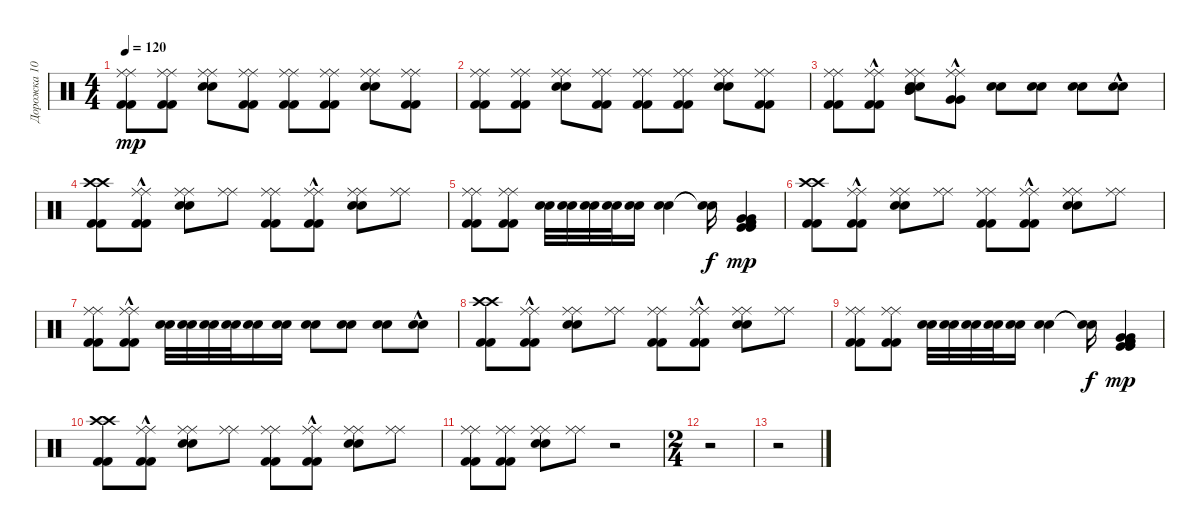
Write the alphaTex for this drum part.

\track ("Дорожка 10" "Дорожка 10") {instrument percussion}
\staff {score}
\articulation defaults
\ts (4 4)
\tempo 120
\clef neutral
\ks c
("Kick (hit) 2" "Ride (middle)" "Kick (hit) 2" "Ride (middle)").8{dy mp} ("Kick (hit) 2" "Ride (middle)" "Kick (hit) 2" "Ride (middle)").8 ("Snare (hit) 2" "Ride (middle)" "Snare (hit) 2" "Ride (middle)").8 ("Kick (hit) 2" "Ride (middle)" "Kick (hit) 2" "Ride (middle)").8 ("Kick (hit) 2" "Ride (middle)" "Kick (hit) 2" "Ride (middle)").8 ("Kick (hit) 2" "Ride (middle)" "Kick (hit) 2" "Ride (middle)").8 ("Snare (hit) 2" "Ride (middle)" "Snare (hit) 2" "Ride (middle)").8 ("Kick (hit) 2" "Ride (middle)" "Kick (hit) 2" "Ride (middle)").8 |
("Kick (hit) 2" "Ride (middle)" "Kick (hit) 2" "Ride (middle)").8 ("Kick (hit) 2" "Ride (middle)" "Kick (hit) 2" "Ride (middle)").8 ("Snare (hit) 2" "Ride (middle)" "Snare (hit) 2" "Ride (middle)").8 ("Kick (hit) 2" "Ride (middle)" "Kick (hit) 2" "Ride (middle)").8 ("Kick (hit) 2" "Ride (middle)" "Kick (hit) 2" "Ride (middle)").8 ("Kick (hit) 2" "Ride (middle)" "Kick (hit) 2" "Ride (middle)").8 ("Snare (hit) 2" "Ride (middle)" "Snare (hit) 2" "Ride (middle)").8 ("Kick (hit) 2" "Ride (middle)" "Kick (hit) 2" "Ride (middle)").8 |
("Kick (hit) 2" "Ride (middle)" "Kick (hit) 2" "Ride (middle)").8 ("Kick (hit) 2"{hac} "Ride (middle)" "Kick (hit) 2"{hac} "Ride (middle)").8 ("Snare (hit) 2" "Mid Tom (hit)" "Ride (middle)" "Snare (hit) 2" "Mid Tom (hit)" "Ride (middle)").8 ("Very Low Tom (hit)" "Ride (middle)"{hac} "Very Low Tom (hit)" "Ride (middle)"{hac}).8 ("Snare (hit) 2" "Snare (hit) 2").8 ("Snare (hit) 2" "Snare (hit) 2").8 ("Snare (hit) 2" "Snare (hit) 2").8 ("Snare (hit) 2"{hac} "Snare (hit) 2"{hac}).8 |
("Kick (hit) 2" "Crash high (hit)" "Kick (hit) 2" "Crash high (hit)").8 ("Kick (hit) 2"{hac} "Ride (middle)" "Kick (hit) 2"{hac} "Ride (middle)").8 ("Snare (hit) 2" "Ride (middle)" "Snare (hit) 2" "Ride (middle)").8 ("Ride (middle)" "Ride (middle)").8 ("Kick (hit) 2" "Ride (middle)" "Kick (hit) 2" "Ride (middle)").8 ("Kick (hit) 2"{hac} "Ride (middle)" "Kick (hit) 2"{hac} "Ride (middle)").8 ("Snare (hit) 2" "Ride (middle)" "Snare (hit) 2" "Ride (middle)").8 ("Ride (middle)" "Ride (middle)").8 |
("Kick (hit) 2" "Ride (middle)" "Kick (hit) 2" "Ride (middle)").8 ("Kick (hit) 2" "Ride (middle)" "Kick (hit) 2" "Ride (middle)").8 ("Snare (hit) 2" "Snare (hit) 2").32 ("Snare (hit) 2" "Snare (hit) 2").32 ("Snare (hit) 2" "Snare (hit) 2").32 ("Snare (hit) 2" "Snare (hit) 2").32 ("Snare (hit) 2" "Snare (hit) 2").16 ("Snare (hit) 2" "Snare (hit) 2").4 ("Snare (hit)"{t} "Snare (hit)"{t}).16{dy f} ("Kick (hit)" "Kick (hit) 2" "Very Low Tom (hit)" "Kick (hit)" "Kick (hit) 2" "Very Low Tom (hit)").4{dy mp} |
("Kick (hit) 2" "Crash high (hit)" "Kick (hit) 2" "Crash high (hit)").8 ("Kick (hit) 2"{hac} "Ride (middle)" "Kick (hit) 2"{hac} "Ride (middle)").8 ("Snare (hit) 2" "Ride (middle)" "Snare (hit) 2" "Ride (middle)").8 ("Ride (middle)" "Ride (middle)").8 ("Kick (hit) 2" "Ride (middle)" "Kick (hit) 2" "Ride (middle)").8 ("Kick (hit) 2"{hac} "Ride (middle)" "Kick (hit) 2"{hac} "Ride (middle)").8 ("Snare (hit) 2" "Ride (middle)" "Snare (hit) 2" "Ride (middle)").8 ("Ride (middle)" "Ride (middle)").8 |
("Kick (hit) 2" "Ride (middle)" "Kick (hit) 2" "Ride (middle)").8 ("Kick (hit) 2"{hac} "Ride (middle)" "Kick (hit) 2"{hac} "Ride (middle)").8 ("Snare (hit) 2" "Snare (hit) 2").32 ("Snare (hit) 2" "Snare (hit) 2").32 ("Snare (hit) 2" "Snare (hit) 2").32 ("Snare (hit) 2" "Snare (hit) 2").32 ("Snare (hit) 2" "Snare (hit) 2").16 ("Snare (hit) 2" "Snare (hit) 2").16 ("Snare (hit) 2" "Snare (hit) 2").8 ("Snare (hit) 2" "Snare (hit) 2").8 ("Snare (hit) 2" "Snare (hit) 2").8 ("Snare (hit) 2"{hac} "Snare (hit) 2"{hac}).8 |
("Kick (hit) 2" "Crash high (hit)" "Kick (hit) 2" "Crash high (hit)").8 ("Kick (hit) 2"{hac} "Ride (middle)" "Kick (hit) 2"{hac} "Ride (middle)").8 ("Snare (hit) 2" "Ride (middle)" "Snare (hit) 2" "Ride (middle)").8 ("Ride (middle)" "Ride (middle)").8 ("Kick (hit) 2" "Ride (middle)" "Kick (hit) 2" "Ride (middle)").8 ("Kick (hit) 2"{hac} "Ride (middle)" "Kick (hit) 2"{hac} "Ride (middle)").8 ("Snare (hit) 2" "Ride (middle)" "Snare (hit) 2" "Ride (middle)").8 ("Ride (middle)" "Ride (middle)").8 |
("Kick (hit) 2" "Ride (middle)" "Kick (hit) 2" "Ride (middle)").8 ("Kick (hit) 2" "Ride (middle)" "Kick (hit) 2" "Ride (middle)").8 ("Snare (hit) 2" "Snare (hit) 2").32 ("Snare (hit) 2" "Snare (hit) 2").32 ("Snare (hit) 2" "Snare (hit) 2").32 ("Snare (hit) 2" "Snare (hit) 2").32 ("Snare (hit) 2" "Snare (hit) 2").16 ("Snare (hit) 2" "Snare (hit) 2").4 ("Snare (hit)"{t} "Snare (hit)"{t}).16{dy f} ("Kick (hit)" "Kick (hit) 2" "Very Low Tom (hit)" "Kick (hit)" "Kick (hit) 2" "Very Low Tom (hit)").4{dy mp} |
("Kick (hit) 2" "Crash high (hit)" "Kick (hit) 2" "Crash high (hit)").8 ("Kick (hit) 2"{hac} "Ride (middle)" "Kick (hit) 2"{hac} "Ride (middle)").8 ("Snare (hit) 2" "Ride (middle)" "Snare (hit) 2" "Ride (middle)").8 ("Ride (middle)" "Ride (middle)").8 ("Kick (hit) 2" "Ride (middle)" "Kick (hit) 2" "Ride (middle)").8 ("Kick (hit) 2"{hac} "Ride (middle)" "Kick (hit) 2"{hac} "Ride (middle)").8 ("Snare (hit) 2" "Ride (middle)" "Snare (hit) 2" "Ride (middle)").8 ("Ride (middle)" "Ride (middle)").8 |
("Kick (hit) 2" "Ride (middle)" "Kick (hit) 2" "Ride (middle)").8 ("Kick (hit) 2" "Ride (middle)" "Kick (hit) 2" "Ride (middle)").8 ("Snare (hit) 2" "Ride (middle)" "Snare (hit) 2" "Ride (middle)").8 ("Ride (middle)" "Ride (middle)").8 r.2 |
\ts (2 4)
r.2 |
r.2
